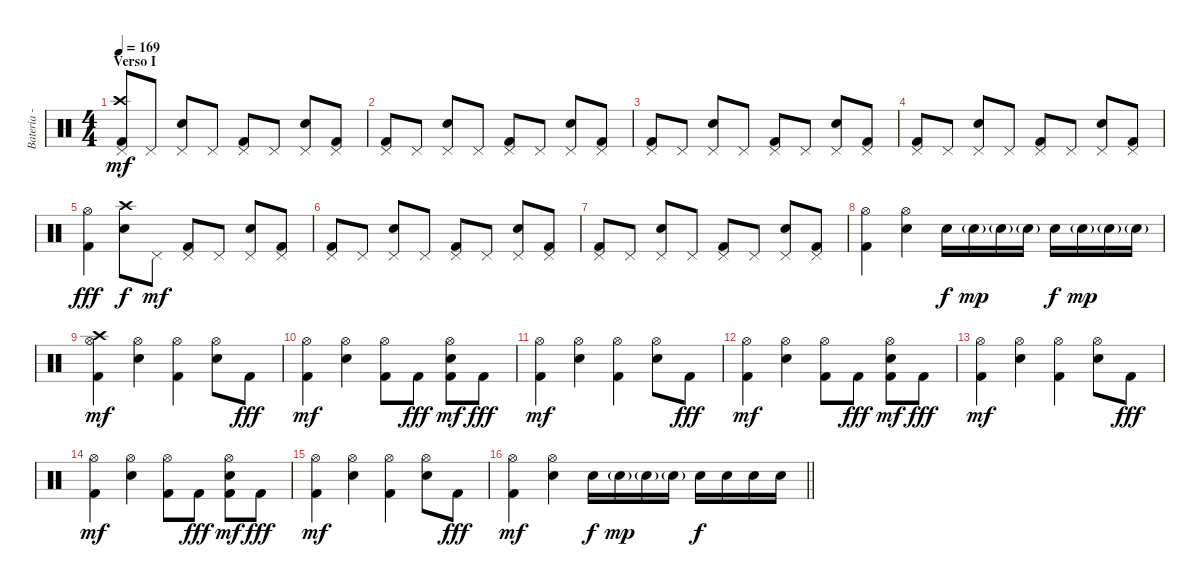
\track ("Bateria - Larzon" "Bateria - ") {instrument percussion}
\staff {score}
\articulation defaults
\ts (4 4)
\section ("" "Verso I")
\tempo 169
\clef neutral
\ks c
("Kick (hit) 2" "Crash high (hit)" "Pedal Hi-Hat (hit)").8{dy mf} "Pedal Hi-Hat (hit)".8 ("Electric Snare (hit)" "Pedal Hi-Hat (hit)").8 "Pedal Hi-Hat (hit)".8 ("Kick (hit) 2" "Pedal Hi-Hat (hit)").8 "Pedal Hi-Hat (hit)".8 ("Electric Snare (hit)" "Pedal Hi-Hat (hit)").8 ("Kick (hit) 2" "Pedal Hi-Hat (hit)").8 |
("Kick (hit) 2" "Pedal Hi-Hat (hit)").8 "Pedal Hi-Hat (hit)".8 ("Electric Snare (hit)" "Pedal Hi-Hat (hit)").8 "Pedal Hi-Hat (hit)".8 ("Kick (hit) 2" "Pedal Hi-Hat (hit)").8 "Pedal Hi-Hat (hit)".8 ("Electric Snare (hit)" "Pedal Hi-Hat (hit)").8 ("Kick (hit) 2" "Pedal Hi-Hat (hit)").8 |
("Kick (hit) 2" "Pedal Hi-Hat (hit)").8 "Pedal Hi-Hat (hit)".8 ("Electric Snare (hit)" "Pedal Hi-Hat (hit)").8 "Pedal Hi-Hat (hit)".8 ("Kick (hit) 2" "Pedal Hi-Hat (hit)").8 "Pedal Hi-Hat (hit)".8 ("Electric Snare (hit)" "Pedal Hi-Hat (hit)").8 ("Kick (hit) 2" "Pedal Hi-Hat (hit)").8 |
("Kick (hit) 2" "Pedal Hi-Hat (hit)").8 "Pedal Hi-Hat (hit)".8 ("Electric Snare (hit)" "Pedal Hi-Hat (hit)").8 "Pedal Hi-Hat (hit)".8 ("Kick (hit) 2" "Pedal Hi-Hat (hit)").8 "Pedal Hi-Hat (hit)".8 ("Electric Snare (hit)" "Pedal Hi-Hat (hit)").8 ("Kick (hit) 2" "Pedal Hi-Hat (hit)").8 |
("Kick (hit) 2" "Hi-Hat (open)").4{dy fff} ("Electric Snare (hit)" "Crash high (hit)").8{dy f} "Pedal Hi-Hat (hit)".8{dy mf} ("Kick (hit) 2" "Pedal Hi-Hat (hit)").8 "Pedal Hi-Hat (hit)".8 ("Electric Snare (hit)" "Pedal Hi-Hat (hit)").8 ("Kick (hit) 2" "Pedal Hi-Hat (hit)").8 |
("Kick (hit) 2" "Pedal Hi-Hat (hit)").8 "Pedal Hi-Hat (hit)".8 ("Electric Snare (hit)" "Pedal Hi-Hat (hit)").8 "Pedal Hi-Hat (hit)".8 ("Kick (hit) 2" "Pedal Hi-Hat (hit)").8 "Pedal Hi-Hat (hit)".8 ("Electric Snare (hit)" "Pedal Hi-Hat (hit)").8 ("Kick (hit) 2" "Pedal Hi-Hat (hit)").8 |
("Kick (hit) 2" "Pedal Hi-Hat (hit)").8 "Pedal Hi-Hat (hit)".8 ("Electric Snare (hit)" "Pedal Hi-Hat (hit)").8 "Pedal Hi-Hat (hit)".8 ("Kick (hit) 2" "Pedal Hi-Hat (hit)").8 "Pedal Hi-Hat (hit)".8 ("Electric Snare (hit)" "Pedal Hi-Hat (hit)").8 ("Kick (hit) 2" "Pedal Hi-Hat (hit)").8 |
("Kick (hit) 2" "Hi-Hat (open)").4 ("Electric Snare (hit)" "Hi-Hat (open)").4 "Electric Snare (hit)".16{dy f} "Electric Snare (hit)"{g}.16{dy mp} "Electric Snare (hit)"{g}.16 "Electric Snare (hit)"{g}.16 "Electric Snare (hit)".16{dy f} "Electric Snare (hit)"{g}.16{dy mp} "Electric Snare (hit)"{g}.16 "Electric Snare (hit)"{g}.16 |
("Kick (hit) 2" "Crash high (hit)" "Hi-Hat (open)").4{dy mf} ("Electric Snare (hit)" "Hi-Hat (open)").4 ("Kick (hit) 2" "Hi-Hat (open)").4 ("Electric Snare (hit)" "Hi-Hat (open)").8 "Kick (hit) 2".8{dy fff} |
("Kick (hit) 2" "Hi-Hat (open)").4{dy mf} ("Electric Snare (hit)" "Hi-Hat (open)").4 ("Kick (hit) 2" "Hi-Hat (open)").8 "Kick (hit) 2".8{dy fff} ("Electric Snare (hit)" "Kick (hit) 2" "Hi-Hat (open)").8{dy mf} "Kick (hit) 2".8{dy fff} |
("Kick (hit) 2" "Hi-Hat (open)").4{dy mf} ("Electric Snare (hit)" "Hi-Hat (open)").4 ("Kick (hit) 2" "Hi-Hat (open)").4 ("Electric Snare (hit)" "Hi-Hat (open)").8 "Kick (hit) 2".8{dy fff} |
("Kick (hit) 2" "Hi-Hat (open)").4{dy mf} ("Electric Snare (hit)" "Hi-Hat (open)").4 ("Kick (hit) 2" "Hi-Hat (open)").8 "Kick (hit) 2".8{dy fff} ("Electric Snare (hit)" "Kick (hit) 2" "Hi-Hat (open)").8{dy mf} "Kick (hit) 2".8{dy fff} |
("Kick (hit) 2" "Hi-Hat (open)").4{dy mf} ("Electric Snare (hit)" "Hi-Hat (open)").4 ("Kick (hit) 2" "Hi-Hat (open)").4 ("Electric Snare (hit)" "Hi-Hat (open)").8 "Kick (hit) 2".8{dy fff} |
("Kick (hit) 2" "Hi-Hat (open)").4{dy mf} ("Electric Snare (hit)" "Hi-Hat (open)").4 ("Kick (hit) 2" "Hi-Hat (open)").8 "Kick (hit) 2".8{dy fff} ("Electric Snare (hit)" "Kick (hit) 2" "Hi-Hat (open)").8{dy mf} "Kick (hit) 2".8{dy fff} |
("Kick (hit) 2" "Hi-Hat (open)").4{dy mf} ("Electric Snare (hit)" "Hi-Hat (open)").4 ("Kick (hit) 2" "Hi-Hat (open)").4 ("Electric Snare (hit)" "Hi-Hat (open)").8 "Kick (hit) 2".8{dy fff} |
\barLineRight lightlight
("Kick (hit) 2" "Hi-Hat (open)").4{dy mf} ("Electric Snare (hit)" "Hi-Hat (open)").4 "Electric Snare (hit)".16{dy f} "Electric Snare (hit)"{g}.16{dy mp} "Electric Snare (hit)"{g}.16 "Electric Snare (hit)"{g}.16 "Electric Snare (hit)".16{dy f} "Electric Snare (hit)".16 "Electric Snare (hit)".16 "Electric Snare (hit)".16
